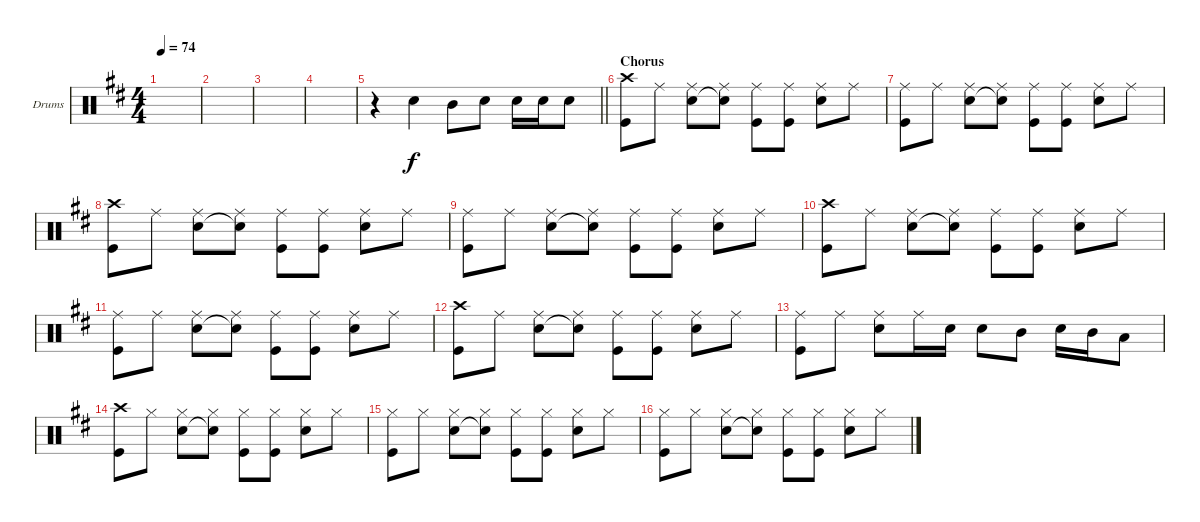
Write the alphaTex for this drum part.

\bracketExtendMode groupsimilarinstruments
\firstSystemTrackNameOrientation horizontal
\otherSystemsTrackNameOrientation horizontal
\track ("Drumkit" "Drums") {instrument percussion}
\staff {score}
\articulation defaults
\ts (4 4)
\tempo 74
\clef neutral
\scale
0.333333
\ks d
|
\scale
0.333333 |
\scale
0.333333 |
\scale
0.333333 |
\scale
0.333333
\barLineRight lightlight
r.4 "Snare (hit) 2".4 "Mid Tom (hit)".8 "Snare (hit) 2".8 "Snare (hit) 2".16 "Snare (hit) 2".16 "Snare (hit) 2".8 |
\section ("" "Chorus")
\scale
0.333333 ("Kick (hit)" "Crash high (hit)").8 "Ride (middle)".8 ("Snare (hit) 2" "Ride (middle)").8 ("Snare (hit) 2"{t} "Ride (middle)").8 ("Kick (hit)" "Ride (middle)").8 ("Kick (hit)" "Ride (middle)").8 ("Snare (hit) 2" "Ride (middle)").8 "Ride (middle)".8 |
\scale
0.333333 ("Kick (hit)" "Ride (middle)").8 "Ride (middle)".8 ("Snare (hit) 2" "Ride (middle)").8 ("Snare (hit) 2"{t} "Ride (middle)").8 ("Kick (hit)" "Ride (middle)").8 ("Kick (hit)" "Ride (middle)").8 ("Snare (hit) 2" "Ride (middle)").8 "Ride (middle)".8 |
\scale
0.333333 ("Kick (hit)" "Crash high (hit)").8 "Ride (middle)".8 ("Snare (hit) 2" "Ride (middle)").8 ("Snare (hit) 2"{t} "Ride (middle)").8 ("Kick (hit)" "Ride (middle)").8 ("Kick (hit)" "Ride (middle)").8 ("Snare (hit) 2" "Ride (middle)").8 "Ride (middle)".8 |
\scale
0.333333 ("Kick (hit)" "Ride (middle)").8 "Ride (middle)".8 ("Snare (hit) 2" "Ride (middle)").8 ("Snare (hit) 2"{t} "Ride (middle)").8 ("Kick (hit)" "Ride (middle)").8 ("Kick (hit)" "Ride (middle)").8 ("Snare (hit) 2" "Ride (middle)").8 "Ride (middle)".8 |
\scale
0.333333 ("Kick (hit)" "Crash high (hit)").8 "Ride (middle)".8 ("Snare (hit) 2" "Ride (middle)").8 ("Snare (hit) 2"{t} "Ride (middle)").8 ("Kick (hit)" "Ride (middle)").8 ("Kick (hit)" "Ride (middle)").8 ("Snare (hit) 2" "Ride (middle)").8 "Ride (middle)".8 |
\scale
0.333333 ("Kick (hit)" "Ride (middle)").8 "Ride (middle)".8 ("Snare (hit) 2" "Ride (middle)").8 ("Snare (hit) 2"{t} "Ride (middle)").8 ("Kick (hit)" "Ride (middle)").8 ("Kick (hit)" "Ride (middle)").8 ("Snare (hit) 2" "Ride (middle)").8 "Ride (middle)".8 |
\scale
0.333333 ("Kick (hit)" "Crash high (hit)").8 "Ride (middle)".8 ("Snare (hit) 2" "Ride (middle)").8 ("Snare (hit) 2"{t} "Ride (middle)").8 ("Kick (hit)" "Ride (middle)").8 ("Kick (hit)" "Ride (middle)").8 ("Snare (hit) 2" "Ride (middle)").8 "Ride (middle)".8 |
\scale
0.333333 ("Kick (hit)" "Ride (middle)").8 "Ride (middle)".8 ("Snare (hit) 2" "Ride (middle)").8 "Ride (middle)".16 "Snare (hit) 2".16 "Snare (hit) 2".8 "Mid Tom (hit)".8 "Snare (hit) 2".16 "Mid Tom (hit)".16 "Low Tom (hit)".8 |
\scale
0.333333 ("Kick (hit)" "Crash high (hit)").8 "Hi-Hat (closed)".8 ("Snare (hit) 2" "Hi-Hat (closed)").8 ("Snare (hit) 2"{t} "Hi-Hat (closed)").8 ("Kick (hit)" "Hi-Hat (closed)").8 ("Kick (hit)" "Hi-Hat (closed)").8 ("Snare (hit) 2" "Hi-Hat (closed)").8 "Hi-Hat (closed)".8 |
\scale
0.333333 ("Kick (hit)" "Hi-Hat (closed)").8 "Hi-Hat (closed)".8 ("Snare (hit) 2" "Hi-Hat (closed)").8 ("Snare (hit) 2"{t} "Hi-Hat (closed)").8 ("Kick (hit)" "Hi-Hat (closed)").8 ("Kick (hit)" "Hi-Hat (closed)").8 ("Snare (hit) 2" "Hi-Hat (closed)").8 "Hi-Hat (closed)".8 |
\scale
0.333333 ("Kick (hit)" "Hi-Hat (closed)").8 "Hi-Hat (closed)".8 ("Snare (hit) 2" "Hi-Hat (closed)").8 ("Snare (hit) 2"{t} "Hi-Hat (closed)").8 ("Kick (hit)" "Hi-Hat (closed)").8 ("Kick (hit)" "Hi-Hat (closed)").8 ("Snare (hit) 2" "Hi-Hat (closed)").8 "Hi-Hat (closed)".8
